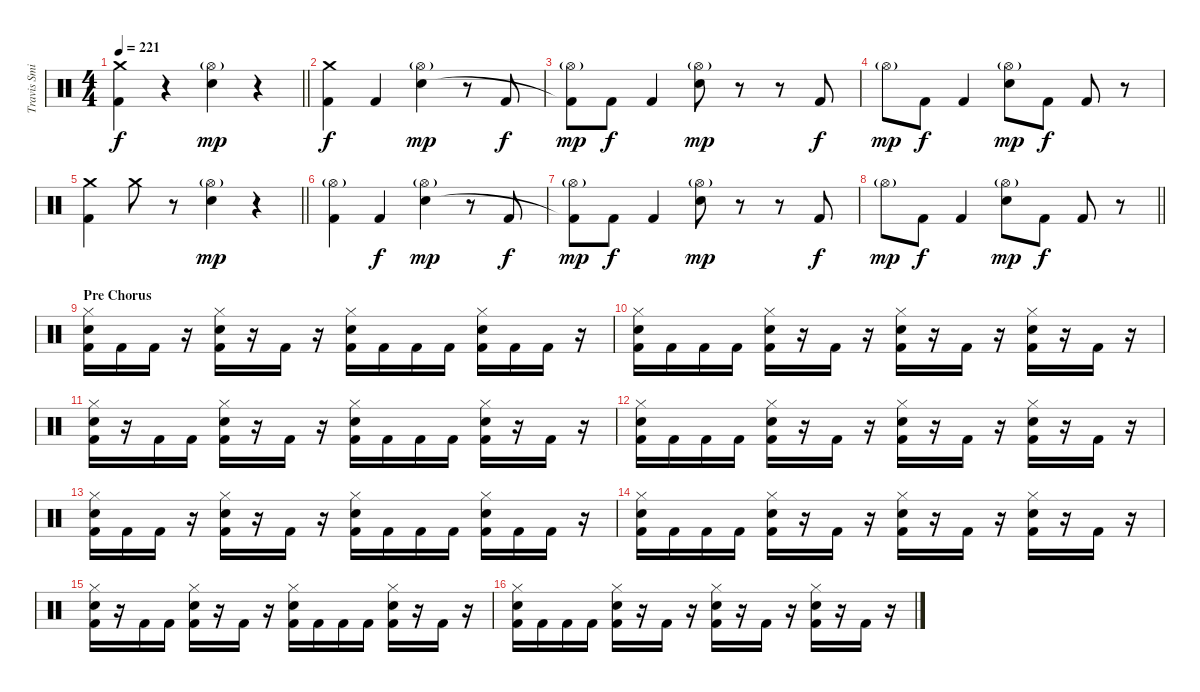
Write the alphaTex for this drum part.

\track ("Travis Smith" "Travis Smi") {instrument percussion}
\staff {score}
\articulation defaults
\ts (4 4)
\tempo 221
\clef neutral
\barLineRight lightlight
\ks c
("Crash medium (hit)" "Kick (hit) 2").4{dy f} r.4 ("Hi-Hat (open)"{g} "Electric Snare (hit)").4{dy mp} r.4 |
("Crash medium (hit)" "Kick (hit) 2").4{dy f} "Kick (hit) 2".4 ("Hi-Hat (open)"{g} "Electric Snare (hit)").4{dy mp} r.8 "Kick (hit) 2".8{dy f} |
("Hi-Hat (open)"{g} "Kick (hit) 2"{t}).8{dy mp} "Kick (hit) 2".8{dy f} "Kick (hit) 2".4 ("Hi-Hat (open)"{g} "Electric Snare (hit)").8{dy mp} r.8 r.8 "Kick (hit) 2".8{dy f} |
"Hi-Hat (open)"{g}.8{dy mp} "Kick (hit) 2".8{dy f} "Kick (hit) 2".4 ("Hi-Hat (open)"{g} "Electric Snare (hit)").8{dy mp} "Kick (hit) 2".8{dy f} "Kick (hit) 2".8 r.8 |
\barLineRight lightlight
("Crash medium (hit)" "Kick (hit) 2").4 "Crash medium (hit)".8 r.8 ("Hi-Hat (open)"{g} "Electric Snare (hit)").4{dy mp} r.4 |
("Hi-Hat (open)"{g} "Kick (hit) 2").4 "Kick (hit) 2".4{dy f} ("Hi-Hat (open)"{g} "Electric Snare (hit)").4{dy mp} r.8 "Kick (hit) 2".8{dy f} |
("Hi-Hat (open)"{g} "Kick (hit) 2"{t}).8{dy mp} "Kick (hit) 2".8{dy f} "Kick (hit) 2".4 ("Hi-Hat (open)"{g} "Electric Snare (hit)").8{dy mp} r.8 r.8 "Kick (hit) 2".8{dy f} |
\barLineRight lightlight "Hi-Hat (open)"{g}.8{dy mp} "Kick (hit) 2".8{dy f} "Kick (hit) 2".4
("Hi-Hat (open)"{g} "Electric Snare (hit)").8{dy mp} "Kick (hit) 2".8{dy f} "Kick (hit) 2".8 r.8 |
\section ("" "Pre Chorus")
("Hi-Hat (closed)" "Electric Snare (hit)" "Kick (hit) 2").16 "Kick (hit) 2".16 "Kick (hit) 2".16 r.16 ("Hi-Hat (closed)" "Electric Snare (hit)" "Kick (hit) 2").16 r.16 "Kick (hit) 2".16 r.16 ("Hi-Hat (closed)" "Electric Snare (hit)" "Kick (hit) 2").16 "Kick (hit) 2".16 "Kick (hit) 2".16 "Kick (hit) 2".16 ("Hi-Hat (closed)" "Electric Snare (hit)" "Kick (hit) 2").16 "Kick (hit) 2".16 "Kick (hit) 2".16 r.16 |
("Hi-Hat (closed)" "Electric Snare (hit)" "Kick (hit) 2").16 "Kick (hit) 2".16 "Kick (hit) 2".16 "Kick (hit) 2".16 ("Hi-Hat (closed)" "Electric Snare (hit)" "Kick (hit) 2").16 r.16 "Kick (hit) 2".16 r.16 ("Hi-Hat (closed)" "Electric Snare (hit)" "Kick (hit) 2").16 r.16 "Kick (hit) 2".16 r.16 ("Hi-Hat (closed)" "Electric Snare (hit)" "Kick (hit) 2").16 r.16 "Kick (hit) 2".16 r.16 |
("Hi-Hat (closed)" "Electric Snare (hit)" "Kick (hit) 2").16 r.16 "Kick (hit) 2".16 "Kick (hit) 2".16 ("Hi-Hat (closed)" "Electric Snare (hit)" "Kick (hit) 2").16 r.16 "Kick (hit) 2".16 r.16 ("Hi-Hat (closed)" "Electric Snare (hit)" "Kick (hit) 2").16 "Kick (hit) 2".16 "Kick (hit) 2".16 "Kick (hit) 2".16 ("Hi-Hat (closed)" "Electric Snare (hit)" "Kick (hit) 2").16 r.16 "Kick (hit) 2".16 r.16 |
("Hi-Hat (closed)" "Electric Snare (hit)" "Kick (hit) 2").16 "Kick (hit) 2".16 "Kick (hit) 2".16 "Kick (hit) 2".16 ("Hi-Hat (closed)" "Electric Snare (hit)" "Kick (hit) 2").16 r.16 "Kick (hit) 2".16 r.16 ("Hi-Hat (closed)" "Electric Snare (hit)" "Kick (hit) 2").16 r.16 "Kick (hit) 2".16 r.16 ("Hi-Hat (closed)" "Electric Snare (hit)" "Kick (hit) 2").16 r.16 "Kick (hit) 2".16 r.16 |
("Hi-Hat (closed)" "Electric Snare (hit)" "Kick (hit) 2").16 "Kick (hit) 2".16 "Kick (hit) 2".16 r.16 ("Hi-Hat (closed)" "Electric Snare (hit)" "Kick (hit) 2").16 r.16 "Kick (hit) 2".16 r.16 ("Hi-Hat (closed)" "Electric Snare (hit)" "Kick (hit) 2").16 "Kick (hit) 2".16 "Kick (hit) 2".16 "Kick (hit) 2".16 ("Hi-Hat (closed)" "Electric Snare (hit)" "Kick (hit) 2").16 "Kick (hit) 2".16 "Kick (hit) 2".16 r.16 |
("Hi-Hat (closed)" "Electric Snare (hit)" "Kick (hit) 2").16 "Kick (hit) 2".16 "Kick (hit) 2".16 "Kick (hit) 2".16 ("Hi-Hat (closed)" "Electric Snare (hit)" "Kick (hit) 2").16 r.16 "Kick (hit) 2".16 r.16 ("Hi-Hat (closed)" "Electric Snare (hit)" "Kick (hit) 2").16 r.16 "Kick (hit) 2".16 r.16 ("Hi-Hat (closed)" "Electric Snare (hit)" "Kick (hit) 2").16 r.16 "Kick (hit) 2".16 r.16 |
("Hi-Hat (closed)" "Electric Snare (hit)" "Kick (hit) 2").16 r.16 "Kick (hit) 2".16 "Kick (hit) 2".16 ("Hi-Hat (closed)" "Electric Snare (hit)" "Kick (hit) 2").16 r.16 "Kick (hit) 2".16 r.16 ("Hi-Hat (closed)" "Electric Snare (hit)" "Kick (hit) 2").16 "Kick (hit) 2".16 "Kick (hit) 2".16 "Kick (hit) 2".16 ("Hi-Hat (closed)" "Electric Snare (hit)" "Kick (hit) 2").16 r.16 "Kick (hit) 2".16 r.16 |
("Hi-Hat (closed)" "Electric Snare (hit)" "Kick (hit) 2").16 "Kick (hit) 2".16 "Kick (hit) 2".16 "Kick (hit) 2".16 ("Hi-Hat (closed)" "Electric Snare (hit)" "Kick (hit) 2").16 r.16 "Kick (hit) 2".16 r.16 ("Hi-Hat (closed)" "Electric Snare (hit)" "Kick (hit) 2").16 r.16 "Kick (hit) 2".16 r.16 ("Hi-Hat (closed)" "Electric Snare (hit)" "Kick (hit) 2").16 r.16 "Kick (hit) 2".16 r.16
